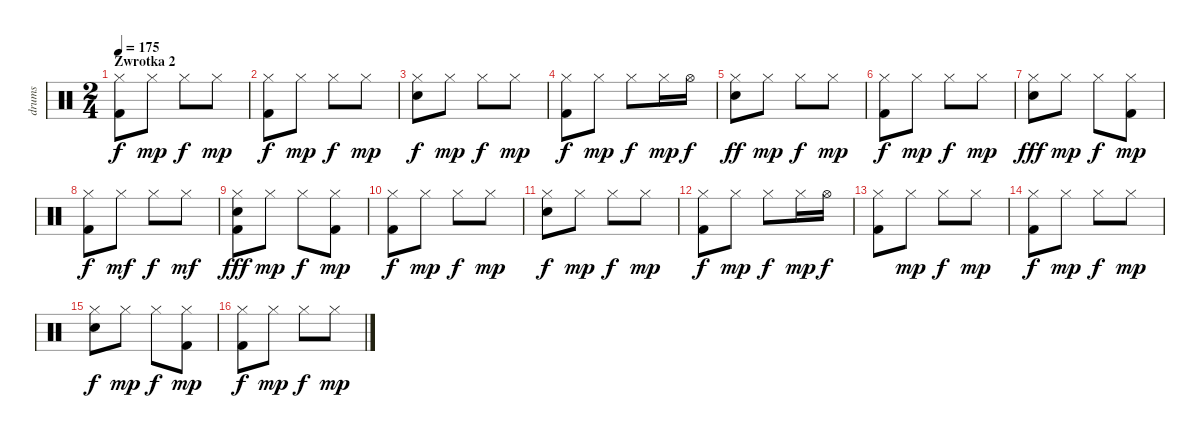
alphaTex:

\track ("drums" "drums") {instrument percussion}
\staff {score}
\articulation defaults
\ts (2 4)
\section ("" "Zwrotka 2")
\tempo 175
\clef neutral
\ks c
("Hi-Hat (closed)" "Kick (hit) 2").8{dy f} "Hi-Hat (closed)".8{dy mp} "Hi-Hat (closed)".8{dy f} "Hi-Hat (closed)".8{dy mp} |
("Hi-Hat (closed)" "Kick (hit) 2").8{dy f} "Hi-Hat (closed)".8{dy mp} "Hi-Hat (closed)".8{dy f} "Hi-Hat (closed)".8{dy mp} |
("Hi-Hat (closed)" "Snare (hit) 2").8{dy f} "Hi-Hat (closed)".8{dy mp} "Hi-Hat (closed)".8{dy f} "Hi-Hat (closed)".8{dy mp} |
("Hi-Hat (closed)" "Kick (hit) 2").8{dy f} "Hi-Hat (closed)".8{dy mp} "Hi-Hat (closed)".8{dy f} "Hi-Hat (closed)".16{dy mp} "Hi-Hat (open)".16{dy f} |
("Hi-Hat (closed)" "Snare (hit) 2").8{dy ff} "Hi-Hat (closed)".8{dy mp} "Hi-Hat (closed)".8{dy f} "Hi-Hat (closed)".8{dy mp} |
("Hi-Hat (closed)" "Kick (hit) 2").8{dy f} "Hi-Hat (closed)".8{dy mp} "Hi-Hat (closed)".8{dy f} "Hi-Hat (closed)".8{dy mp} |
("Hi-Hat (closed)" "Snare (hit) 2").8{dy fff} "Hi-Hat (closed)".8{dy mp} "Hi-Hat (closed)".8{dy f} ("Hi-Hat (closed)" "Kick (hit) 2").8{dy mp} |
("Hi-Hat (closed)" "Kick (hit) 2").8{dy f} "Hi-Hat (closed)".8{dy mf} "Hi-Hat (closed)".8{dy f} "Hi-Hat (closed)".8{dy mf} |
("Hi-Hat (closed)" "Snare (hit) 2" "Kick (hit) 2").8{dy fff} "Hi-Hat (closed)".8{dy mp} "Hi-Hat (closed)".8{dy f} ("Hi-Hat (closed)" "Kick (hit) 2").8{dy mp} |
("Hi-Hat (closed)" "Kick (hit) 2").8{dy f} "Hi-Hat (closed)".8{dy mp} "Hi-Hat (closed)".8{dy f} "Hi-Hat (closed)".8{dy mp} |
("Hi-Hat (closed)" "Snare (hit) 2").8{dy f} "Hi-Hat (closed)".8{dy mp} "Hi-Hat (closed)".8{dy f} "Hi-Hat (closed)".8{dy mp} |
("Hi-Hat (closed)" "Kick (hit) 2").8{dy f} "Hi-Hat (closed)".8{dy mp} "Hi-Hat (closed)".8{dy f} "Hi-Hat (closed)".16{dy mp} "Hi-Hat (open)".16{dy f} |
("Hi-Hat (closed)" "Kick (hit) 2").8 "Hi-Hat (closed)".8{dy mp} "Hi-Hat (closed)".8{dy f} "Hi-Hat (closed)".8{dy mp} |
("Hi-Hat (closed)" "Kick (hit) 2").8{dy f} "Hi-Hat (closed)".8{dy mp} "Hi-Hat (closed)".8{dy f} "Hi-Hat (closed)".8{dy mp} |
("Hi-Hat (closed)" "Snare (hit) 2").8{dy f} "Hi-Hat (closed)".8{dy mp} "Hi-Hat (closed)".8{dy f} ("Hi-Hat (closed)" "Kick (hit) 2").8{dy mp} |
("Hi-Hat (closed)" "Kick (hit) 2").8{dy f} "Hi-Hat (closed)".8{dy mp} "Hi-Hat (closed)".8{dy f} "Hi-Hat (closed)".8{dy mp}
